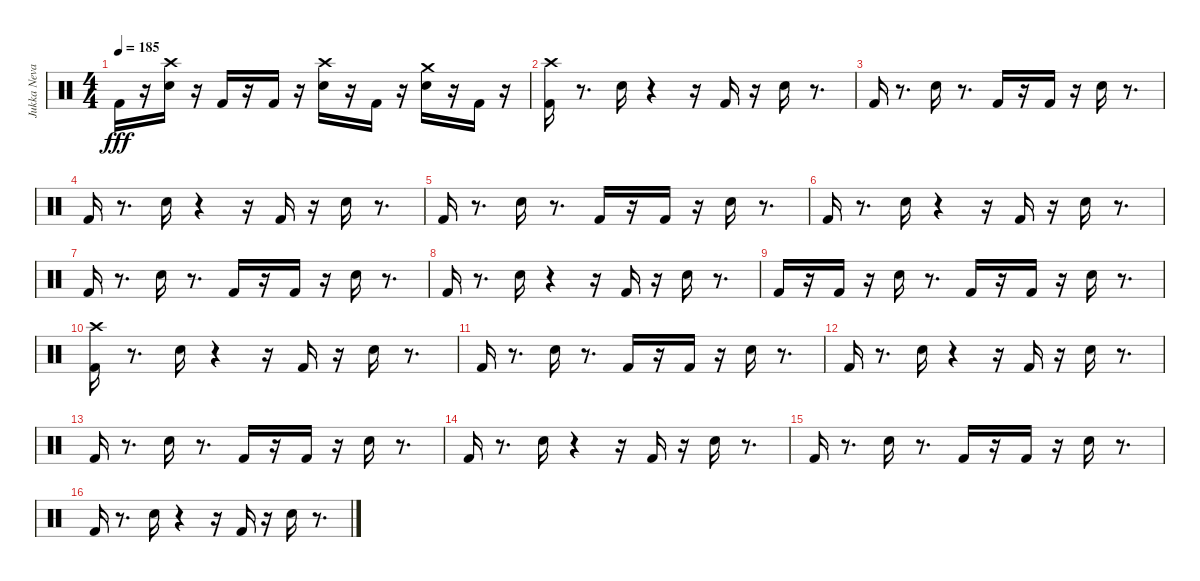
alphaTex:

\track ("Jukka Nevalinen" "Jukka Neva") {instrument percussion}
\staff {score}
\articulation defaults
\ts (4 4)
\tempo 185
\clef neutral
\ks c "Kick (hit) 2".16{dy fff}
r.16 ("Crash high (hit)" "Snare (hit) 2").16 r.16 "Kick (hit) 2".16 r.16 "Kick (hit) 2".16 r.16 ("Crash high (hit)" "Snare (hit) 2").16 r.16 "Kick (hit) 2".16 r.16 ("Snare (hit) 2" "Crash medium (hit)").16 r.16 "Kick (hit) 2".16 r.16 |
("Kick (hit) 2" "Crash high (hit)").16 r.8{d} "Snare (hit) 2".16 r.4 r.16 "Kick (hit) 2".16 r.16 "Snare (hit) 2".16 r.8{d} |
"Kick (hit) 2".16 r.8{d} "Snare (hit) 2".16 r.8{d} "Kick (hit) 2".16 r.16 "Kick (hit) 2".16 r.16 "Snare (hit) 2".16 r.8{d} |
"Kick (hit) 2".16 r.8{d} "Snare (hit) 2".16 r.4 r.16 "Kick (hit) 2".16 r.16 "Snare (hit) 2".16 r.8{d} |
"Kick (hit) 2".16 r.8{d} "Snare (hit) 2".16 r.8{d} "Kick (hit) 2".16 r.16 "Kick (hit) 2".16 r.16 "Snare (hit) 2".16 r.8{d} |
"Kick (hit) 2".16 r.8{d} "Snare (hit) 2".16 r.4 r.16 "Kick (hit) 2".16 r.16 "Snare (hit) 2".16 r.8{d} |
"Kick (hit) 2".16 r.8{d} "Snare (hit) 2".16 r.8{d} "Kick (hit) 2".16 r.16 "Kick (hit) 2".16 r.16 "Snare (hit) 2".16 r.8{d} |
"Kick (hit) 2".16 r.8{d} "Snare (hit) 2".16 r.4 r.16 "Kick (hit) 2".16 r.16 "Snare (hit) 2".16 r.8{d} |
"Kick (hit) 2".16 r.16 "Kick (hit) 2".16 r.16 "Snare (hit) 2".16 r.8{d} "Kick (hit) 2".16 r.16 "Kick (hit) 2".16 r.16 "Snare (hit) 2".16 r.8{d} |
("Kick (hit) 2" "Crash high (hit)").16 r.8{d} "Snare (hit) 2".16 r.4 r.16 "Kick (hit) 2".16 r.16 "Snare (hit) 2".16 r.8{d} |
"Kick (hit) 2".16 r.8{d} "Snare (hit) 2".16 r.8{d} "Kick (hit) 2".16 r.16 "Kick (hit) 2".16 r.16 "Snare (hit) 2".16 r.8{d} |
"Kick (hit) 2".16 r.8{d} "Snare (hit) 2".16 r.4 r.16 "Kick (hit) 2".16 r.16 "Snare (hit) 2".16 r.8{d} |
"Kick (hit) 2".16 r.8{d} "Snare (hit) 2".16 r.8{d} "Kick (hit) 2".16 r.16 "Kick (hit) 2".16 r.16 "Snare (hit) 2".16 r.8{d} |
"Kick (hit) 2".16 r.8{d} "Snare (hit) 2".16 r.4 r.16 "Kick (hit) 2".16 r.16 "Snare (hit) 2".16 r.8{d} |
"Kick (hit) 2".16 r.8{d} "Snare (hit) 2".16 r.8{d} "Kick (hit) 2".16 r.16 "Kick (hit) 2".16 r.16 "Snare (hit) 2".16 r.8{d} |
"Kick (hit) 2".16 r.8{d} "Snare (hit) 2".16 r.4 r.16 "Kick (hit) 2".16 r.16 "Snare (hit) 2".16 r.8{d}
